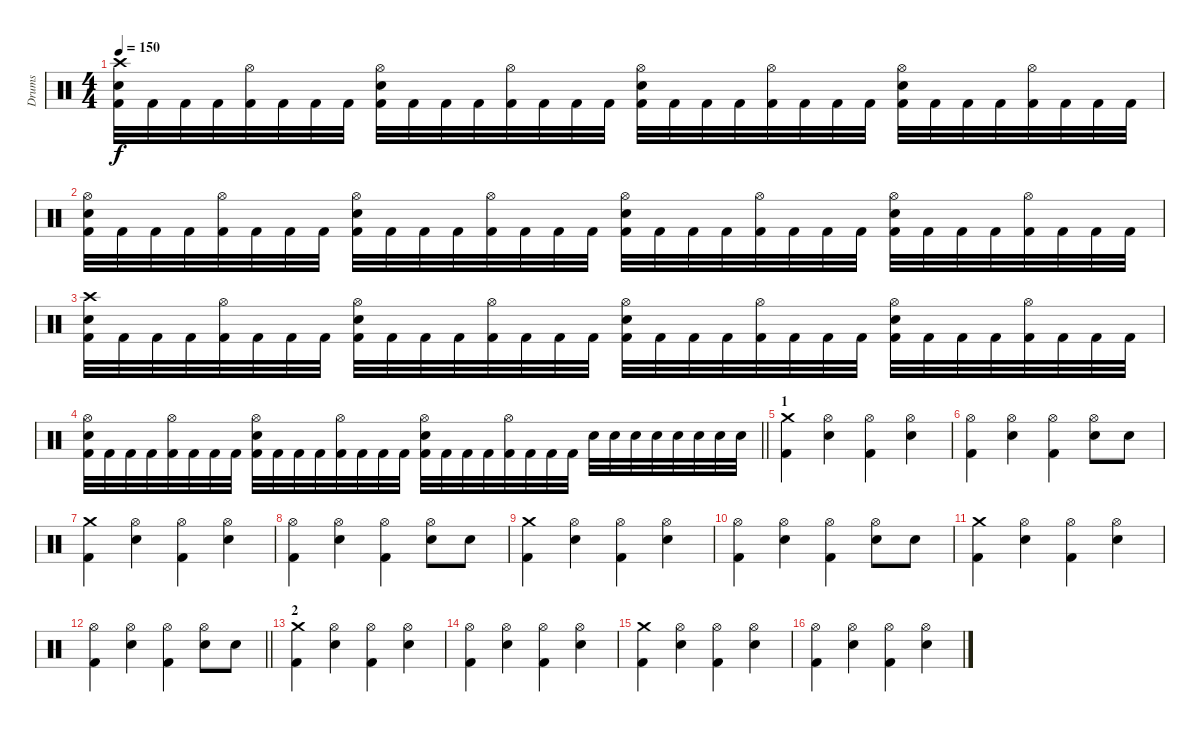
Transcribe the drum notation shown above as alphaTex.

\track ("Drums" "Drums") {instrument percussion}
\staff {score}
\articulation defaults
\ts (4 4)
\tempo 150
\clef neutral
\ks c
("Crash high (hit)" "Snare (hit) 2" "Kick (hit) 2").32{dy f} "Kick (hit) 2".32 "Kick (hit) 2".32 "Kick (hit) 2".32 ("Hi-Hat (open)" "Kick (hit) 2").32 "Kick (hit) 2".32 "Kick (hit) 2".32 "Kick (hit) 2".32 ("Hi-Hat (open)" "Snare (hit) 2" "Kick (hit) 2").32 "Kick (hit) 2".32 "Kick (hit) 2".32 "Kick (hit) 2".32 ("Hi-Hat (open)" "Kick (hit) 2").32 "Kick (hit) 2".32 "Kick (hit) 2".32 "Kick (hit) 2".32 ("Hi-Hat (open)" "Snare (hit) 2" "Kick (hit) 2").32 "Kick (hit) 2".32 "Kick (hit) 2".32 "Kick (hit) 2".32 ("Hi-Hat (open)" "Kick (hit) 2").32 "Kick (hit) 2".32 "Kick (hit) 2".32 "Kick (hit) 2".32 ("Hi-Hat (open)" "Snare (hit) 2" "Kick (hit) 2").32 "Kick (hit) 2".32 "Kick (hit) 2".32 "Kick (hit) 2".32 ("Hi-Hat (open)" "Kick (hit) 2").32 "Kick (hit) 2".32 "Kick (hit) 2".32 "Kick (hit) 2".32 |
("Hi-Hat (open)" "Snare (hit) 2" "Kick (hit) 2").32 "Kick (hit) 2".32 "Kick (hit) 2".32 "Kick (hit) 2".32 ("Hi-Hat (open)" "Kick (hit) 2").32 "Kick (hit) 2".32 "Kick (hit) 2".32 "Kick (hit) 2".32 ("Hi-Hat (open)" "Snare (hit) 2" "Kick (hit) 2").32 "Kick (hit) 2".32 "Kick (hit) 2".32 "Kick (hit) 2".32 ("Hi-Hat (open)" "Kick (hit) 2").32 "Kick (hit) 2".32 "Kick (hit) 2".32 "Kick (hit) 2".32 ("Hi-Hat (open)" "Snare (hit) 2" "Kick (hit) 2").32 "Kick (hit) 2".32 "Kick (hit) 2".32 "Kick (hit) 2".32 ("Hi-Hat (open)" "Kick (hit) 2").32 "Kick (hit) 2".32 "Kick (hit) 2".32 "Kick (hit) 2".32 ("Hi-Hat (open)" "Snare (hit) 2" "Kick (hit) 2").32 "Kick (hit) 2".32 "Kick (hit) 2".32 "Kick (hit) 2".32 ("Hi-Hat (open)" "Kick (hit) 2").32 "Kick (hit) 2".32 "Kick (hit) 2".32 "Kick (hit) 2".32 |
("Crash high (hit)" "Snare (hit) 2" "Kick (hit) 2").32 "Kick (hit) 2".32 "Kick (hit) 2".32 "Kick (hit) 2".32 ("Hi-Hat (open)" "Kick (hit) 2").32 "Kick (hit) 2".32 "Kick (hit) 2".32 "Kick (hit) 2".32 ("Hi-Hat (open)" "Snare (hit) 2" "Kick (hit) 2").32 "Kick (hit) 2".32 "Kick (hit) 2".32 "Kick (hit) 2".32 ("Hi-Hat (open)" "Kick (hit) 2").32 "Kick (hit) 2".32 "Kick (hit) 2".32 "Kick (hit) 2".32 ("Hi-Hat (open)" "Snare (hit) 2" "Kick (hit) 2").32 "Kick (hit) 2".32 "Kick (hit) 2".32 "Kick (hit) 2".32 ("Hi-Hat (open)" "Kick (hit) 2").32 "Kick (hit) 2".32 "Kick (hit) 2".32 "Kick (hit) 2".32 ("Hi-Hat (open)" "Snare (hit) 2" "Kick (hit) 2").32 "Kick (hit) 2".32 "Kick (hit) 2".32 "Kick (hit) 2".32 ("Hi-Hat (open)" "Kick (hit) 2").32 "Kick (hit) 2".32 "Kick (hit) 2".32 "Kick (hit) 2".32 |
\barLineRight lightlight
("Hi-Hat (open)" "Snare (hit) 2" "Kick (hit) 2").32 "Kick (hit) 2".32 "Kick (hit) 2".32 "Kick (hit) 2".32 ("Hi-Hat (open)" "Kick (hit) 2").32 "Kick (hit) 2".32 "Kick (hit) 2".32 "Kick (hit) 2".32 ("Hi-Hat (open)" "Snare (hit) 2" "Kick (hit) 2").32 "Kick (hit) 2".32 "Kick (hit) 2".32 "Kick (hit) 2".32 ("Hi-Hat (open)" "Kick (hit) 2").32 "Kick (hit) 2".32 "Kick (hit) 2".32 "Kick (hit) 2".32 ("Hi-Hat (open)" "Snare (hit) 2" "Kick (hit) 2").32 "Kick (hit) 2".32 "Kick (hit) 2".32 "Kick (hit) 2".32 ("Hi-Hat (open)" "Kick (hit) 2").32 "Kick (hit) 2".32 "Kick (hit) 2".32 "Kick (hit) 2".32 "Snare (hit) 2".32 "Snare (hit) 2".32 "Snare (hit) 2".32 "Snare (hit) 2".32 "Snare (hit) 2".32 "Snare (hit) 2".32 "Snare (hit) 2".32 "Snare (hit) 2".32 |
\section ("" "1")
("Crash medium (hit)" "Kick (hit) 2").4 ("Hi-Hat (open)" "Snare (hit) 2").4 ("Hi-Hat (open)" "Kick (hit) 2").4 ("Hi-Hat (open)" "Snare (hit) 2").4 |
("Hi-Hat (open)" "Kick (hit) 2").4 ("Hi-Hat (open)" "Snare (hit) 2").4 ("Hi-Hat (open)" "Kick (hit) 2").4 ("Hi-Hat (open)" "Snare (hit) 2").8 "Snare (hit) 2".8 |
("Crash medium (hit)" "Kick (hit) 2").4 ("Hi-Hat (open)" "Snare (hit) 2").4 ("Hi-Hat (open)" "Kick (hit) 2").4 ("Hi-Hat (open)" "Snare (hit) 2").4 |
("Hi-Hat (open)" "Kick (hit) 2").4 ("Hi-Hat (open)" "Snare (hit) 2").4 ("Hi-Hat (open)" "Kick (hit) 2").4 ("Hi-Hat (open)" "Snare (hit) 2").8 "Snare (hit) 2".8 |
("Crash medium (hit)" "Kick (hit) 2").4 ("Hi-Hat (open)" "Snare (hit) 2").4 ("Hi-Hat (open)" "Kick (hit) 2").4 ("Hi-Hat (open)" "Snare (hit) 2").4 |
("Hi-Hat (open)" "Kick (hit) 2").4 ("Hi-Hat (open)" "Snare (hit) 2").4 ("Hi-Hat (open)" "Kick (hit) 2").4 ("Hi-Hat (open)" "Snare (hit) 2").8 "Snare (hit) 2".8 |
("Crash medium (hit)" "Kick (hit) 2").4 ("Hi-Hat (open)" "Snare (hit) 2").4 ("Hi-Hat (open)" "Kick (hit) 2").4 ("Hi-Hat (open)" "Snare (hit) 2").4 |
\barLineRight lightlight
("Hi-Hat (open)" "Kick (hit) 2").4 ("Hi-Hat (open)" "Snare (hit) 2").4 ("Hi-Hat (open)" "Kick (hit) 2").4 ("Hi-Hat (open)" "Snare (hit) 2").8 "Snare (hit) 2".8 |
\section ("" "2")
("Crash medium (hit)" "Kick (hit) 2").4 ("Hi-Hat (open)" "Snare (hit) 2").4 ("Hi-Hat (open)" "Kick (hit) 2").4 ("Hi-Hat (open)" "Snare (hit) 2").4 |
("Hi-Hat (open)" "Kick (hit) 2").4 ("Hi-Hat (open)" "Snare (hit) 2").4 ("Hi-Hat (open)" "Kick (hit) 2").4 ("Hi-Hat (open)" "Snare (hit) 2").4 |
("Crash medium (hit)" "Kick (hit) 2").4 ("Hi-Hat (open)" "Snare (hit) 2").4 ("Hi-Hat (open)" "Kick (hit) 2").4 ("Hi-Hat (open)" "Snare (hit) 2").4 |
("Hi-Hat (open)" "Kick (hit) 2").4 ("Hi-Hat (open)" "Snare (hit) 2").4 ("Hi-Hat (open)" "Kick (hit) 2").4 ("Hi-Hat (open)" "Snare (hit) 2").4
